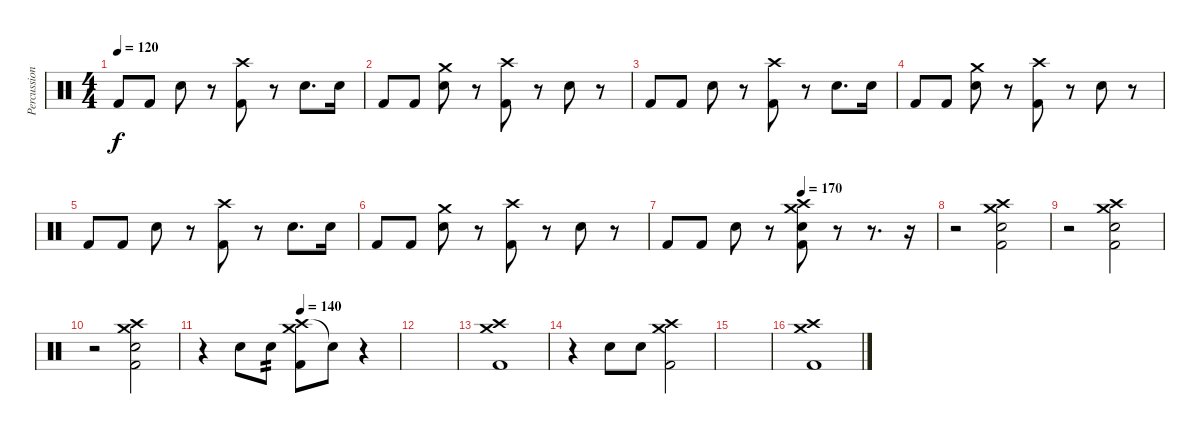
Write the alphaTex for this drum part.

\track ("Percussions" "Percussion") {instrument percussion}
\staff {score}
\articulation defaults
\ts (4 4)
\tempo 120
\clef neutral
\ks c "Kick (hit) 2".8{dy f} "Kick (hit) 2".8 "Electric Snare (hit)".8
r.8 ("Crash high (hit)" "Kick (hit) 2").8 r.8 "Electric Snare (hit)".8{d} "Electric Snare (hit)".16 |
"Kick (hit) 2".8 "Kick (hit) 2".8 ("Crash medium (hit)" "Electric Snare (hit)").8 r.8 ("Crash high (hit)" "Kick (hit) 2").8 r.8 "Electric Snare (hit)".8 r.8 |
"Kick (hit) 2".8 "Kick (hit) 2".8 "Electric Snare (hit)".8 r.8 ("Crash high (hit)" "Kick (hit) 2").8 r.8 "Electric Snare (hit)".8{d} "Electric Snare (hit)".16 |
"Kick (hit) 2".8 "Kick (hit) 2".8 ("Crash medium (hit)" "Electric Snare (hit)").8 r.8 ("Crash high (hit)" "Kick (hit) 2").8 r.8 "Electric Snare (hit)".8 r.8 |
"Kick (hit) 2".8 "Kick (hit) 2".8 "Electric Snare (hit)".8 r.8 ("Crash high (hit)" "Kick (hit) 2").8 r.8 "Electric Snare (hit)".8{d} "Electric Snare (hit)".16 |
"Kick (hit) 2".8 "Kick (hit) 2".8 ("Crash medium (hit)" "Electric Snare (hit)").8 r.8 ("Crash high (hit)" "Kick (hit) 2").8 r.8 "Electric Snare (hit)".8 r.8 |
\tempo (170 0.5)
"Kick (hit) 2".8 "Kick (hit) 2".8 "Electric Snare (hit)".8 r.8 ("Crash medium (hit)" "Crash high (hit)" "Electric Snare (hit)" "Kick (hit) 2").8 r.8 r.8{d} r.16 |
r.2 ("Crash medium (hit)" "Crash high (hit)" "Electric Snare (hit)" "Kick (hit) 2").2 |
r.2 ("Crash medium (hit)" "Crash high (hit)" "Electric Snare (hit)" "Kick (hit) 2").2 |
r.2 ("Crash medium (hit)" "Crash high (hit)" "Electric Snare (hit)" "Kick (hit) 2").2 |
\tempo (140 0.5)
r.4 "Electric Snare (hit)".8 "Electric Snare (hit)".8{tp 2} ("Crash high (hit)" "Crash medium (hit)" "Kick (hit) 2").8 "Snare (hit)"{t}.8 r.4 |
|
("Crash high (hit)" "Crash medium (hit)" "Kick (hit) 2").1 |
r.4 "Electric Snare (hit)".8 "Electric Snare (hit)".8 ("Crash high (hit)" "Crash medium (hit)" "Kick (hit) 2").2 |
|
("Crash high (hit)" "Crash medium (hit)" "Kick (hit) 2").1
